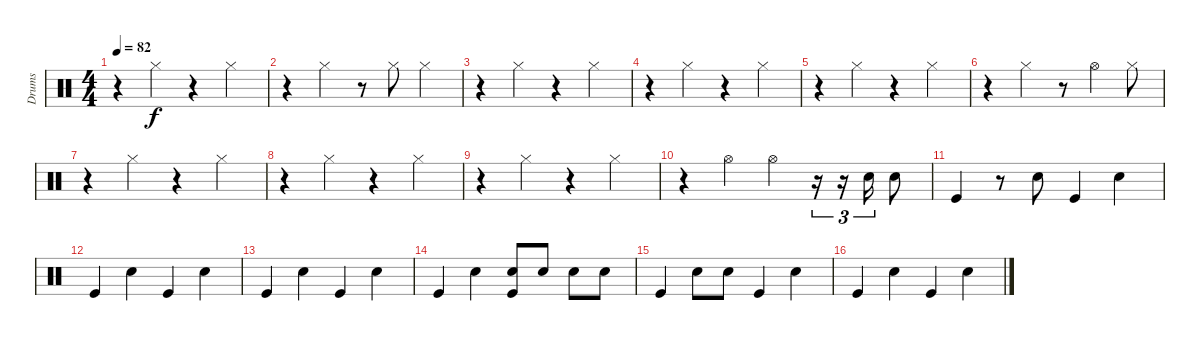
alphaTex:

\track ("Drums" "Drums") {instrument percussion}
\staff {score}
\articulation defaults
\ts (4 4)
\tempo 82
\clef neutral
\ks c
r.4{dy f} "Hi-Hat (closed)".4 r.4 "Hi-Hat (closed)".4 |
r.4 "Hi-Hat (closed)".4 r.8 "Hi-Hat (closed)".8 "Hi-Hat (closed)".4 |
r.4 "Hi-Hat (closed)".4 r.4 "Hi-Hat (closed)".4 |
r.4 "Hi-Hat (closed)".4 r.4 "Hi-Hat (closed)".4 |
r.4 "Hi-Hat (closed)".4 r.4 "Hi-Hat (closed)".4 |
r.4 "Hi-Hat (closed)".4 r.8 "Hi-Hat (open)".4 "Hi-Hat (closed)".8 |
r.4 "Hi-Hat (closed)".4 r.4 "Hi-Hat (closed)".4 |
r.4 "Hi-Hat (closed)".4 r.4 "Hi-Hat (closed)".4 |
r.4 "Hi-Hat (closed)".4 r.4 "Hi-Hat (closed)".4 |
r.4 "Hi-Hat (open)".4 "Hi-Hat (open)".4 r.16{tu (3 2)} r.16{tu (3 2)} "Snare (hit) 2".16{tu (3 2)} "Snare (hit) 2".8 |
"Kick (hit)".4 r.8 "Snare (hit) 2".8 "Kick (hit)".4 "Snare (hit) 2".4 |
"Kick (hit)".4 "Snare (hit) 2".4 "Kick (hit)".4 "Snare (hit) 2".4 |
"Kick (hit)".4 "Snare (hit) 2".4 "Kick (hit)".4 "Snare (hit) 2".4 |
"Kick (hit)".4 "Snare (hit) 2".4 ("Snare (hit) 2" "Kick (hit)").8 "Snare (hit) 2".8 "Snare (hit) 2".8 "Snare (hit) 2".8 |
"Kick (hit)".4 "Snare (hit) 2".8 "Snare (hit) 2".8 "Kick (hit)".4 "Snare (hit) 2".4 |
"Kick (hit)".4 "Snare (hit) 2".4 "Kick (hit)".4 "Snare (hit) 2".4
